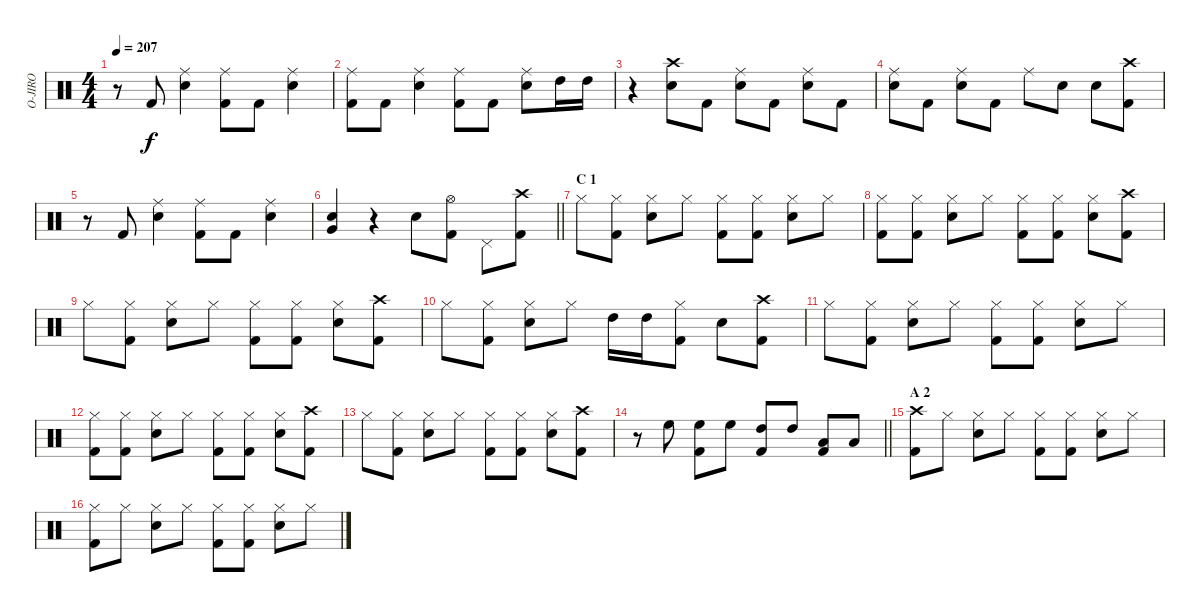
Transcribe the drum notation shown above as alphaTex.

\track ("O-JIRO" "O-JIRO") {instrument percussion}
\staff {score}
\articulation defaults
\ts (4 4)
\tempo 207
\clef neutral
\ks c
r.8{dy f} "Kick (hit) 2".8 ("Ride (middle)" "Snare (hit) 2").4 ("Ride (middle)" "Kick (hit) 2").8 "Kick (hit) 2".8 ("Ride (middle)" "Snare (hit) 2").4 |
("Ride (middle)" "Kick (hit) 2").8 "Kick (hit) 2".8 ("Ride (middle)" "Snare (hit) 2").4 ("Ride (middle)" "Kick (hit) 2").8 "Kick (hit) 2".8 ("Ride (middle)" "Snare (hit) 2").8 "High Tom (hit)".16 "High Tom (hit)".16 |
r.4 ("Crash high (hit)" "Snare (hit) 2").8 "Kick (hit) 2".8 ("Ride (middle)" "Snare (hit) 2").8 "Kick (hit) 2".8 ("Ride (middle)" "Snare (hit) 2").8 "Kick (hit) 2".8 |
("Ride (middle)" "Snare (hit) 2").8 "Kick (hit) 2".8 ("Ride (middle)" "Snare (hit) 2").8 "Kick (hit) 2".8 "Ride (middle)".8 "Snare (hit) 2".8 "Snare (hit) 2".8 ("Crash high (hit)" "Kick (hit) 2").8 |
r.8 "Kick (hit) 2".8 ("Ride (middle)" "Snare (hit) 2").4 ("Ride (middle)" "Kick (hit) 2").8 "Kick (hit) 2".8 ("Ride (middle)" "Snare (hit) 2").4 |
\barLineRight lightlight
("Very Low Tom (hit)" "Snare (hit) 2").4 r.4 "Snare (hit) 2".8 ("Hi-Hat (open)" "Kick (hit) 2").8 "Pedal Hi-Hat (hit)".8 ("Crash high (hit)" "Kick (hit) 2").8 |
\section ("" "C 1")
"Hi-Hat (closed)".8 ("Hi-Hat (closed)" "Kick (hit) 2").8 ("Hi-Hat (closed)" "Snare (hit) 2").8 "Hi-Hat (closed)".8 ("Hi-Hat (closed)" "Kick (hit) 2").8 ("Hi-Hat (closed)" "Kick (hit) 2").8 ("Hi-Hat (closed)" "Snare (hit) 2").8 "Hi-Hat (closed)".8 |
("Hi-Hat (closed)" "Kick (hit) 2").8 ("Hi-Hat (closed)" "Kick (hit) 2").8 ("Hi-Hat (closed)" "Snare (hit) 2").8 "Hi-Hat (closed)".8 ("Hi-Hat (closed)" "Kick (hit) 2").8 ("Hi-Hat (closed)" "Kick (hit) 2").8 ("Hi-Hat (closed)" "Snare (hit) 2").8 ("Crash high (hit)" "Kick (hit) 2").8 |
"Hi-Hat (closed)".8 ("Hi-Hat (closed)" "Kick (hit) 2").8 ("Hi-Hat (closed)" "Snare (hit) 2").8 "Hi-Hat (closed)".8 ("Hi-Hat (closed)" "Kick (hit) 2").8 ("Hi-Hat (closed)" "Kick (hit) 2").8 ("Hi-Hat (closed)" "Snare (hit) 2").8 ("Crash high (hit)" "Kick (hit) 2").8 |
"Hi-Hat (closed)".8 ("Hi-Hat (closed)" "Kick (hit) 2").8 ("Hi-Hat (closed)" "Snare (hit) 2").8 "Hi-Hat (closed)".8 "High Tom (hit)".16 "High Tom (hit)".16 ("Hi-Hat (closed)" "Kick (hit) 2").8 "Snare (hit) 2".8 ("Crash high (hit)" "Kick (hit) 2").8 |
"Hi-Hat (closed)".8 ("Hi-Hat (closed)" "Kick (hit) 2").8 ("Hi-Hat (closed)" "Snare (hit) 2").8 "Hi-Hat (closed)".8 ("Hi-Hat (closed)" "Kick (hit) 2").8 ("Hi-Hat (closed)" "Kick (hit) 2").8 ("Hi-Hat (closed)" "Snare (hit) 2").8 "Hi-Hat (closed)".8 |
("Hi-Hat (closed)" "Kick (hit) 2").8 ("Hi-Hat (closed)" "Kick (hit) 2").8 ("Hi-Hat (closed)" "Snare (hit) 2").8 "Hi-Hat (closed)".8 ("Hi-Hat (closed)" "Kick (hit) 2").8 ("Hi-Hat (closed)" "Kick (hit) 2").8 ("Hi-Hat (closed)" "Snare (hit) 2").8 ("Crash high (hit)" "Kick (hit) 2").8 |
"Hi-Hat (closed)".8 ("Hi-Hat (closed)" "Kick (hit) 2").8 ("Hi-Hat (closed)" "Snare (hit) 2").8 "Hi-Hat (closed)".8 ("Hi-Hat (closed)" "Kick (hit) 2").8 ("Hi-Hat (closed)" "Kick (hit) 2").8 ("Hi-Hat (closed)" "Snare (hit) 2").8 ("Crash high (hit)" "Kick (hit) 2").8 |
\barLineRight lightlight
r.8 "High Floor Tom (hit)".8 ("High Floor Tom (hit)" "Kick (hit) 2").8 "High Floor Tom (hit)".8 ("High Tom (hit)" "Kick (hit) 2").8 "High Tom (hit)".8 ("Low Tom (hit)" "Kick (hit) 2").8 "Low Tom (hit)".8 |
\section ("" "A 2")
("Crash high (hit)" "Kick (hit) 2").8 "Hi-Hat (closed)".8 ("Hi-Hat (closed)" "Snare (hit) 2").8 "Hi-Hat (closed)".8 ("Hi-Hat (closed)" "Kick (hit) 2").8 ("Hi-Hat (closed)" "Kick (hit) 2").8 ("Hi-Hat (closed)" "Snare (hit) 2").8 "Hi-Hat (closed)".8 |
("Hi-Hat (closed)" "Kick (hit) 2").8 "Hi-Hat (closed)".8 ("Hi-Hat (closed)" "Snare (hit) 2").8 "Hi-Hat (closed)".8 ("Hi-Hat (closed)" "Kick (hit) 2").8 ("Hi-Hat (closed)" "Kick (hit) 2").8 ("Hi-Hat (closed)" "Snare (hit) 2").8 "Hi-Hat (closed)".8
